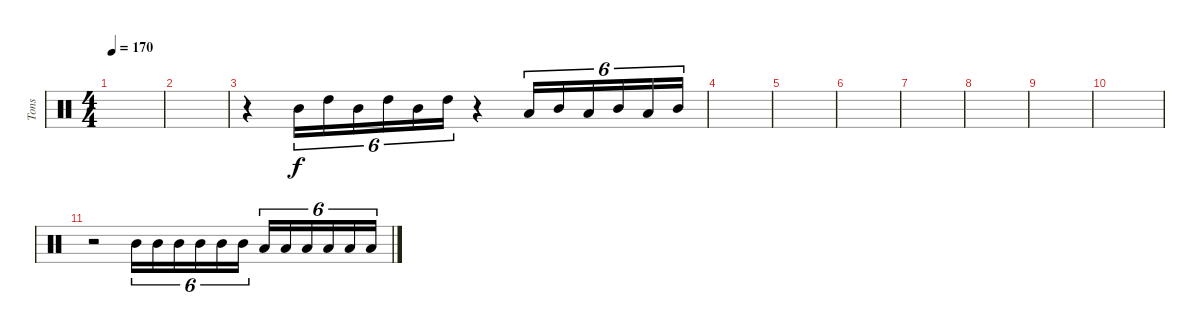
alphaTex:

\track ("Tons" "Tons") {instrument percussion}
\staff {score}
\articulation defaults
\ts (4 4)
\tempo 170
\clef neutral
\ks c
|
|
r.4 "Mid Tom (hit)".16{tu (6 4)} "High Tom (hit)".16{tu (6 4)} "Mid Tom (hit)".16{tu (6 4)} "High Tom (hit)".16{tu (6 4)} "Mid Tom (hit)".16{tu (6 4)} "High Tom (hit)".16{tu (6 4)} r.4 "Low Tom (hit)".16{tu (6 4)} "Mid Tom (hit)".16{tu (6 4)} "Low Tom (hit)".16{tu (6 4)} "Mid Tom (hit)".16{tu (6 4)} "Low Tom (hit)".16{tu (6 4)} "Mid Tom (hit)".16{tu (6 4)} |
|
|
|
|
|
|
|
r.2 "Mid Tom (hit)".16{tu (6 4)} "Mid Tom (hit)".16{tu (6 4)} "Mid Tom (hit)".16{tu (6 4)} "Mid Tom (hit)".16{tu (6 4)} "Mid Tom (hit)".16{tu (6 4)} "Mid Tom (hit)".16{tu (6 4)} "Low Tom (hit)".16{tu (6 4)} "Low Tom (hit)".16{tu (6 4)} "Low Tom (hit)".16{tu (6 4)} "Low Tom (hit)".16{tu (6 4)} "Low Tom (hit)".16{tu (6 4)} "Low Tom (hit)".16{tu (6 4)}
